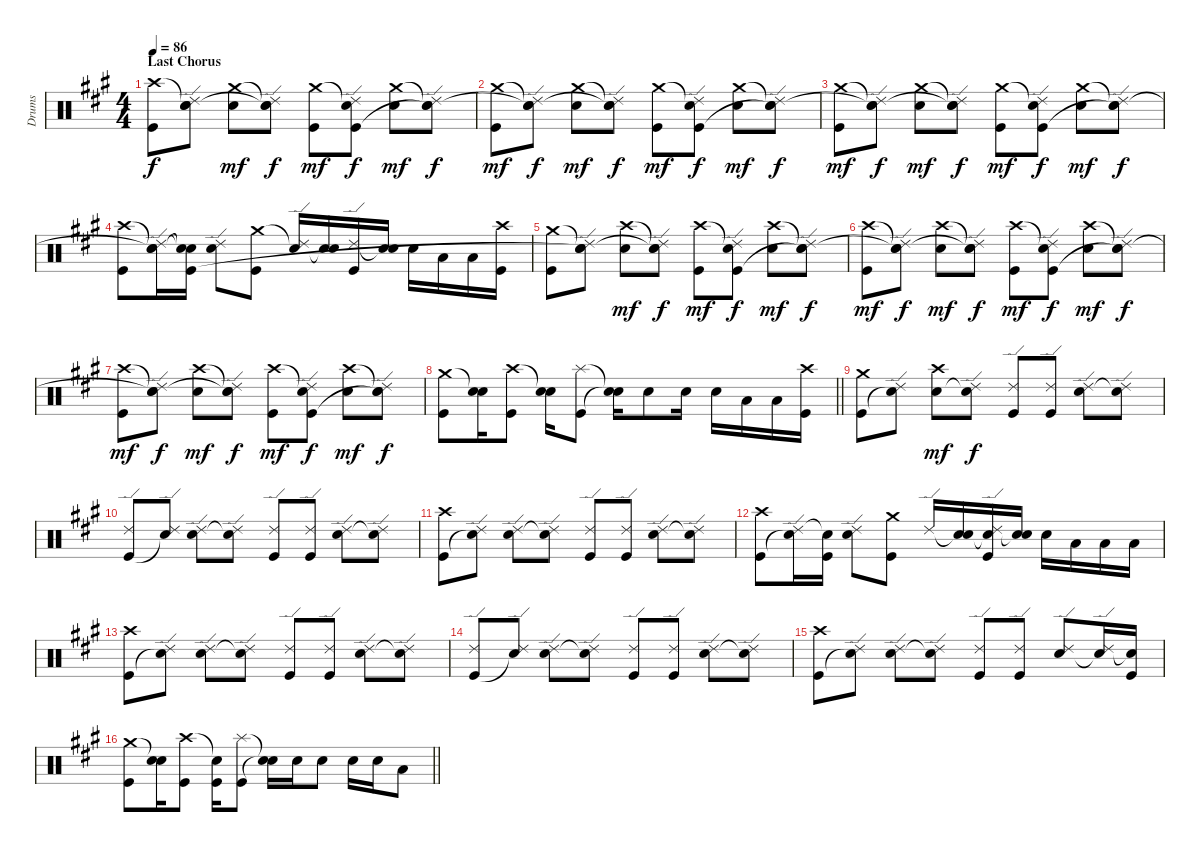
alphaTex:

\track ("Drums" "Drums") {instrument percussion}
\staff {score}
\articulation defaults
\ts (4 4)
\section ("" "Last Chorus")
\tempo 86
\clef neutral
\ks a
("Crash high (hit)" "Kick (hit)").8{dy f} ("Snare (hit)"{t} "Ride (edge) 2" "Snare (hit)").8 ("Crash medium (hit)" "Electric Snare (hit)").8{dy mf} ("Snare (hit)"{t} "Ride (edge) 2" "Snare (hit)"{t}).8{dy f} ("Crash medium (hit)" "Kick (hit)").8{dy mf} ("Snare (hit)"{t} "Ride (edge) 2" "Kick (hit)").8{dy f} ("Crash medium (hit)" "Electric Snare (hit)").8{dy mf} ("Snare (hit)"{t} "Ride (edge) 2" "Snare (hit)"{t}).8{dy f} |
("Crash medium (hit)" "Kick (hit)").8{dy mf} ("Snare (hit)"{t} "Ride (edge) 2" "Snare (hit)"{t}).8{dy f} ("Crash medium (hit)" "Electric Snare (hit)").8{dy mf} ("Snare (hit)"{t} "Ride (edge) 2" "Snare (hit)"{t}).8{dy f} ("Crash medium (hit)" "Kick (hit)").8{dy mf} ("Snare (hit)"{t} "Ride (edge) 2" "Kick (hit)").8{dy f} ("Crash medium (hit)" "Electric Snare (hit)").8{dy mf} ("Snare (hit)"{t} "Ride (edge) 2" "Snare (hit)"{t}).8{dy f} |
("Crash medium (hit)" "Kick (hit)").8{dy mf} ("Snare (hit)"{t} "Ride (edge) 2" "Snare (hit)"{t}).8{dy f} ("Crash medium (hit)" "Electric Snare (hit)").8{dy mf} ("Snare (hit)"{t} "Ride (edge) 2" "Snare (hit)"{t}).8{dy f} ("Crash medium (hit)" "Kick (hit)").8{dy mf} ("Snare (hit)"{t} "Ride (edge) 2" "Kick (hit)").8{dy f} ("Crash medium (hit)" "Electric Snare (hit)").8{dy mf} ("Snare (hit)"{t} "Ride (edge) 2" "Snare (hit)"{t}).8{dy f} |
("Crash high (hit)" "Kick (hit)").8 ("Snare (hit)"{t} "Ride (edge) 2" "Snare (hit)"{t}).16 ("Snare (hit)"{t} "Snare (hit)"{t} "Kick (hit)").16 ("Ride (edge) 2" "Electric Snare (hit)").8 ("Crash medium (hit)" "Kick (hit)").8 ("Snare (hit)"{t} "Ride (edge) 2").16 ("Snare (hit)"{t} "Electric Snare (hit)").16 ("Ride (edge) 2" "Kick (hit)").16 ("Snare (hit)"{t} "Electric Snare (hit)").16 "Electric Snare (hit)".16 "Low Tom (hit)".16 "Low Tom (hit)".16 ("Crash high (hit)" "Kick (hit)").16 |
("Crash medium (hit)" "Kick (hit)").8 ("Snare (hit)"{t} "Ride (edge) 2" "Snare (hit)"{t}).8 ("Crash high (hit)" "Electric Snare (hit)").8{dy mf} ("Snare (hit)"{t} "Ride (edge) 2" "Snare (hit)"{t}).8{dy f} ("Crash high (hit)" "Kick (hit)").8{dy mf} ("Snare (hit)"{t} "Ride (edge) 2" "Kick (hit)").8{dy f} ("Crash high (hit)" "Electric Snare (hit)").8{dy mf} ("Snare (hit)"{t} "Ride (edge) 2" "Snare (hit)"{t}).8{dy f} |
("Crash high (hit)" "Kick (hit)").8{dy mf} ("Snare (hit)"{t} "Ride (edge) 2" "Snare (hit)"{t}).8{dy f} ("Crash high (hit)" "Electric Snare (hit)").8{dy mf} ("Snare (hit)"{t} "Ride (edge) 2" "Snare (hit)"{t}).8{dy f} ("Crash high (hit)" "Kick (hit)").8{dy mf} ("Snare (hit)"{t} "Ride (edge) 2" "Kick (hit)").8{dy f} ("Crash high (hit)" "Electric Snare (hit)").8{dy mf} ("Snare (hit)"{t} "Ride (edge) 2" "Snare (hit)"{t}).8{dy f} |
("Crash high (hit)" "Kick (hit)").8{dy mf} ("Snare (hit)"{t} "Ride (edge) 2" "Snare (hit)"{t}).8{dy f} ("Crash high (hit)" "Electric Snare (hit)").8{dy mf} ("Snare (hit)"{t} "Ride (edge) 2" "Snare (hit)"{t}).8{dy f} ("Crash high (hit)" "Kick (hit)").8{dy mf} ("Snare (hit)"{t} "Ride (edge) 2" "Kick (hit)").8{dy f} ("Crash high (hit)" "Electric Snare (hit)").8{dy mf} ("Snare (hit)"{t} "Ride (edge) 2" "Snare (hit)"{t}).8{dy f} |
\barLineRight lightlight
("Crash medium (hit)" "Kick (hit)").8 ("Snare (hit)"{t} "Electric Snare (hit)").16 ("Crash high (hit)" "Kick (hit)").8 ("Snare (hit)"{t} "Electric Snare (hit)").16 ("Splash (hit)" "Kick (hit)").8 ("Snare (hit)"{t} "Snare (hit)"{t}).16 "Electric Snare (hit)".8 "Electric Snare (hit)".16 "Electric Snare (hit)".16 "Low Tom (hit)".16 "Low Tom (hit)".16 ("Crash high (hit)" "Kick (hit)").16 |
("Crash medium (hit)" "Kick (hit)").8 ("Ride (edge) 2" "Snare (hit)"{t}).8 ("Crash high (hit)" "Electric Snare (hit)").8{dy mf} ("Ride (edge) 2" "Snare (hit)"{t}).8{dy f} ("Ride (edge) 2" "Kick (hit)").8 ("Ride (edge) 2" "Kick (hit)").8 ("Ride (edge) 2" "Electric Snare (hit)").8 ("Ride (edge) 2" "Snare (hit)"{t}).8 |
("Ride (edge) 2" "Kick (hit)").8 ("Ride (edge) 2" "Snare (hit)"{t}).8 ("Ride (edge) 2" "Electric Snare (hit)").8 ("Ride (edge) 2" "Snare (hit)"{t}).8 ("Ride (edge) 2" "Kick (hit)").8 ("Ride (edge) 2" "Kick (hit)").8 ("Ride (edge) 2" "Electric Snare (hit)").8 ("Ride (edge) 2" "Snare (hit)"{t}).8 |
("Crash high (hit)" "Kick (hit)").8 ("Ride (edge) 2" "Snare (hit)"{t}).8 ("Ride (edge) 2" "Electric Snare (hit)").8 ("Ride (edge) 2" "Snare (hit)"{t}).8 ("Ride (edge) 2" "Kick (hit)").8 ("Ride (edge) 2" "Kick (hit)").8 ("Ride (edge) 2" "Electric Snare (hit)").8 ("Ride (edge) 2" "Snare (hit)"{t}).8 |
("Crash high (hit)" "Kick (hit)").8 ("Ride (edge) 2" "Snare (hit)"{t}).16 ("Snare (hit)"{t} "Kick (hit)").16 ("Ride (edge) 2" "Electric Snare (hit)").8 ("Crash medium (hit)" "Kick (hit)").8 "Ride (edge) 2".16 ("Snare (hit)"{t} "Electric Snare (hit)").16 ("Ride (edge) 2" "Snare (hit)"{t} "Kick (hit)").16 ("Snare (hit)"{t} "Electric Snare (hit)").16 "Electric Snare (hit)".16 "Low Tom (hit)".16 "Low Tom (hit)".16 "Low Floor Tom (hit)".16 |
("Crash high (hit)" "Kick (hit)").8 ("Ride (edge) 2" "Snare (hit)"{t}).8 ("Ride (edge) 2" "Electric Snare (hit)").8 ("Ride (edge) 2" "Snare (hit)"{t}).8 ("Ride (edge) 2" "Kick (hit)").8 ("Ride (edge) 2" "Kick (hit)").8 ("Ride (edge) 2" "Electric Snare (hit)").8 ("Ride (edge) 2" "Snare (hit)"{t}).8 |
("Ride (edge) 2" "Kick (hit)").8 ("Ride (edge) 2" "Snare (hit)"{t}).8 ("Ride (edge) 2" "Electric Snare (hit)").8 ("Ride (edge) 2" "Snare (hit)"{t}).8 ("Ride (edge) 2" "Kick (hit)").8 ("Ride (edge) 2" "Kick (hit)").8 ("Ride (edge) 2" "Electric Snare (hit)").8 ("Ride (edge) 2" "Snare (hit)"{t}).8 |
("Crash high (hit)" "Kick (hit)").8 ("Ride (edge) 2" "Snare (hit)"{t}).8 ("Ride (edge) 2" "Electric Snare (hit)").8 ("Ride (edge) 2" "Snare (hit)"{t}).8 ("Ride (edge) 2" "Kick (hit)").8 ("Ride (edge) 2" "Kick (hit)").8 ("Ride (edge) 2" "Electric Snare (hit)").8 ("Ride (edge) 2" "Snare (hit)"{t}).16 ("Snare (hit)"{t} "Kick (hit)").16 |
\barLineRight lightlight
("Crash medium (hit)" "Kick (hit)").8 ("Snare (hit)"{t} "Electric Snare (hit)").16 ("Crash high (hit)" "Kick (hit)").8 ("Snare (hit)"{t} "Kick (hit)").16 ("Splash (hit)" "Kick (hit)").8 ("Snare (hit)"{t} "Snare (hit)"{t}).16 "Electric Snare (hit)".16 "Electric Snare (hit)".8 "Electric Snare (hit)".16 "Electric Snare (hit)".16 "Low Tom (hit)".8
